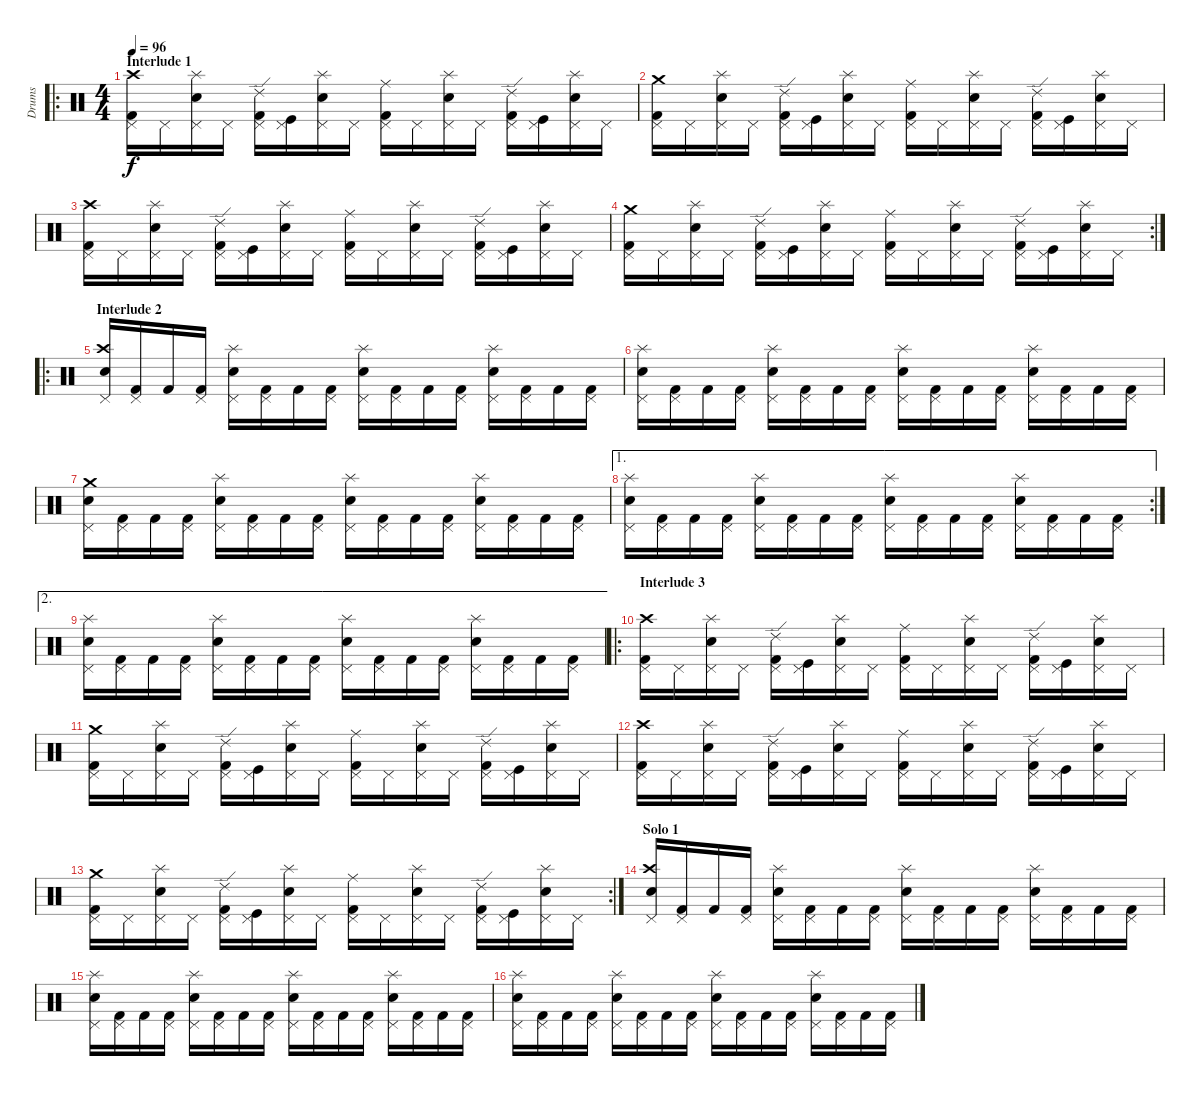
\track ("Drums" "Drums") {instrument percussion}
\staff {score}
\articulation defaults
\ro
\ts (4 4)
\section ("" "Interlude 1")
\tempo 96
\clef neutral
\ks c
("Kick (hit) 2" "Pedal Hi-Hat (hit)" "Crash high (hit)").16{dy f} "Pedal Hi-Hat (hit)".16 ("Snare (hit) 2" "Pedal Hi-Hat (hit)" "Splash (hit)").16 "Pedal Hi-Hat (hit)".16 ("Kick (hit) 2" "Pedal Hi-Hat (hit)" "Ride (edge) 2").16 ("Kick (hit)" "Pedal Hi-Hat (hit)").16 ("Snare (hit) 2" "Pedal Hi-Hat (hit)" "Splash (hit)").16 "Pedal Hi-Hat (hit)".16 ("Kick (hit) 2" "Pedal Hi-Hat (hit)" "Ride (middle)").16 "Pedal Hi-Hat (hit)".16 ("Snare (hit) 2" "Pedal Hi-Hat (hit)" "Splash (hit)").16 "Pedal Hi-Hat (hit)".16 ("Kick (hit) 2" "Pedal Hi-Hat (hit)" "Ride (edge) 2").16 ("Kick (hit)" "Pedal Hi-Hat (hit)").16 ("Snare (hit) 2" "Pedal Hi-Hat (hit)" "Splash (hit)").16 "Pedal Hi-Hat (hit)".16 |
("Kick (hit) 2" "Pedal Hi-Hat (hit)" "Crash medium (hit)").16 "Pedal Hi-Hat (hit)".16 ("Snare (hit) 2" "Pedal Hi-Hat (hit)" "Splash (hit)").16 "Pedal Hi-Hat (hit)".16 ("Kick (hit) 2" "Pedal Hi-Hat (hit)" "Ride (edge) 2").16 ("Kick (hit)" "Pedal Hi-Hat (hit)").16 ("Snare (hit) 2" "Pedal Hi-Hat (hit)" "Splash (hit)").16 "Pedal Hi-Hat (hit)".16 ("Kick (hit) 2" "Pedal Hi-Hat (hit)" "Ride (middle)").16 "Pedal Hi-Hat (hit)".16 ("Snare (hit) 2" "Pedal Hi-Hat (hit)" "Splash (hit)").16 "Pedal Hi-Hat (hit)".16 ("Kick (hit) 2" "Pedal Hi-Hat (hit)" "Ride (edge) 2").16 ("Kick (hit)" "Pedal Hi-Hat (hit)").16 ("Snare (hit) 2" "Pedal Hi-Hat (hit)" "Splash (hit)").16 "Pedal Hi-Hat (hit)".16 |
("Kick (hit) 2" "Pedal Hi-Hat (hit)" "Crash high (hit)").16 "Pedal Hi-Hat (hit)".16 ("Snare (hit) 2" "Pedal Hi-Hat (hit)" "Splash (hit)").16 "Pedal Hi-Hat (hit)".16 ("Kick (hit) 2" "Pedal Hi-Hat (hit)" "Ride (edge) 2").16 ("Kick (hit)" "Pedal Hi-Hat (hit)").16 ("Snare (hit) 2" "Pedal Hi-Hat (hit)" "Splash (hit)").16 "Pedal Hi-Hat (hit)".16 ("Kick (hit) 2" "Pedal Hi-Hat (hit)" "Ride (middle)").16 "Pedal Hi-Hat (hit)".16 ("Snare (hit) 2" "Pedal Hi-Hat (hit)" "Splash (hit)").16 "Pedal Hi-Hat (hit)".16 ("Kick (hit) 2" "Pedal Hi-Hat (hit)" "Ride (edge) 2").16 ("Kick (hit)" "Pedal Hi-Hat (hit)").16 ("Snare (hit) 2" "Pedal Hi-Hat (hit)" "Splash (hit)").16 "Pedal Hi-Hat (hit)".16 |
\rc 2
("Kick (hit) 2" "Pedal Hi-Hat (hit)" "Crash medium (hit)").16 "Pedal Hi-Hat (hit)".16 ("Snare (hit) 2" "Pedal Hi-Hat (hit)" "Splash (hit)").16 "Pedal Hi-Hat (hit)".16 ("Kick (hit) 2" "Pedal Hi-Hat (hit)" "Ride (edge) 2").16 ("Kick (hit)" "Pedal Hi-Hat (hit)").16 ("Snare (hit) 2" "Pedal Hi-Hat (hit)" "Splash (hit)").16 "Pedal Hi-Hat (hit)".16 ("Kick (hit) 2" "Pedal Hi-Hat (hit)" "Ride (middle)").16 "Pedal Hi-Hat (hit)".16 ("Snare (hit) 2" "Pedal Hi-Hat (hit)" "Splash (hit)").16 "Pedal Hi-Hat (hit)".16 ("Kick (hit) 2" "Pedal Hi-Hat (hit)" "Ride (edge) 2").16 ("Kick (hit)" "Pedal Hi-Hat (hit)").16 ("Snare (hit) 2" "Pedal Hi-Hat (hit)" "Splash (hit)").16 "Pedal Hi-Hat (hit)".16 |
\ro
\section ("" "Interlude 2")
("Snare (hit) 2" "Pedal Hi-Hat (hit)" "Crash high (hit)").16 ("Kick (hit) 2" "Pedal Hi-Hat (hit)").16 "Kick (hit) 2".16 ("Kick (hit) 2" "Pedal Hi-Hat (hit)").16 ("Snare (hit) 2" "Pedal Hi-Hat (hit)" "Splash (hit)").16 ("Kick (hit) 2" "Pedal Hi-Hat (hit)").16 "Kick (hit) 2".16 ("Kick (hit) 2" "Pedal Hi-Hat (hit)").16 ("Snare (hit) 2" "Pedal Hi-Hat (hit)" "Splash (hit)").16 ("Kick (hit) 2" "Pedal Hi-Hat (hit)").16 "Kick (hit) 2".16 ("Kick (hit) 2" "Pedal Hi-Hat (hit)").16 ("Snare (hit) 2" "Pedal Hi-Hat (hit)" "Splash (hit)").16 ("Kick (hit) 2" "Pedal Hi-Hat (hit)").16 "Kick (hit) 2".16 ("Kick (hit) 2" "Pedal Hi-Hat (hit)").16 |
("Snare (hit) 2" "Pedal Hi-Hat (hit)" "Splash (hit)").16 ("Kick (hit) 2" "Pedal Hi-Hat (hit)").16 "Kick (hit) 2".16 ("Kick (hit) 2" "Pedal Hi-Hat (hit)").16 ("Snare (hit) 2" "Pedal Hi-Hat (hit)" "Splash (hit)").16 ("Kick (hit) 2" "Pedal Hi-Hat (hit)").16 "Kick (hit) 2".16 ("Kick (hit) 2" "Pedal Hi-Hat (hit)").16 ("Snare (hit) 2" "Pedal Hi-Hat (hit)" "Splash (hit)").16 ("Kick (hit) 2" "Pedal Hi-Hat (hit)").16 "Kick (hit) 2".16 ("Kick (hit) 2" "Pedal Hi-Hat (hit)").16 ("Snare (hit) 2" "Pedal Hi-Hat (hit)" "Splash (hit)").16 ("Kick (hit) 2" "Pedal Hi-Hat (hit)").16 "Kick (hit) 2".16 ("Kick (hit) 2" "Pedal Hi-Hat (hit)").16 |
("Snare (hit) 2" "Pedal Hi-Hat (hit)" "Crash medium (hit)").16 ("Kick (hit) 2" "Pedal Hi-Hat (hit)").16 "Kick (hit) 2".16 ("Kick (hit) 2" "Pedal Hi-Hat (hit)").16 ("Snare (hit) 2" "Pedal Hi-Hat (hit)" "Splash (hit)").16 ("Kick (hit) 2" "Pedal Hi-Hat (hit)").16 "Kick (hit) 2".16 ("Kick (hit) 2" "Pedal Hi-Hat (hit)").16 ("Snare (hit) 2" "Pedal Hi-Hat (hit)" "Splash (hit)").16 ("Kick (hit) 2" "Pedal Hi-Hat (hit)").16 "Kick (hit) 2".16 ("Kick (hit) 2" "Pedal Hi-Hat (hit)").16 ("Snare (hit) 2" "Pedal Hi-Hat (hit)" "Splash (hit)").16 ("Kick (hit) 2" "Pedal Hi-Hat (hit)").16 "Kick (hit) 2".16 ("Kick (hit) 2" "Pedal Hi-Hat (hit)").16 |
\ae 1
\rc 2
("Snare (hit) 2" "Pedal Hi-Hat (hit)" "Splash (hit)").16 ("Kick (hit) 2" "Pedal Hi-Hat (hit)").16 "Kick (hit) 2".16 ("Kick (hit) 2" "Pedal Hi-Hat (hit)").16 ("Snare (hit) 2" "Pedal Hi-Hat (hit)" "Splash (hit)").16 ("Kick (hit) 2" "Pedal Hi-Hat (hit)").16 "Kick (hit) 2".16 ("Kick (hit) 2" "Pedal Hi-Hat (hit)").16 ("Snare (hit) 2" "Pedal Hi-Hat (hit)" "Splash (hit)").16 ("Kick (hit) 2" "Pedal Hi-Hat (hit)").16 "Kick (hit) 2".16 ("Kick (hit) 2" "Pedal Hi-Hat (hit)").16 ("Snare (hit) 2" "Pedal Hi-Hat (hit)" "Splash (hit)").16 ("Kick (hit) 2" "Pedal Hi-Hat (hit)").16 "Kick (hit) 2".16 ("Kick (hit) 2" "Pedal Hi-Hat (hit)").16 |
\ae 2
("Snare (hit) 2" "Pedal Hi-Hat (hit)" "Splash (hit)").16 ("Kick (hit) 2" "Pedal Hi-Hat (hit)").16 "Kick (hit) 2".16 ("Kick (hit) 2" "Pedal Hi-Hat (hit)").16 ("Snare (hit) 2" "Pedal Hi-Hat (hit)" "Splash (hit)").16 ("Kick (hit) 2" "Pedal Hi-Hat (hit)").16 "Kick (hit) 2".16 ("Kick (hit) 2" "Pedal Hi-Hat (hit)").16 ("Snare (hit) 2" "Pedal Hi-Hat (hit)" "Splash (hit)").16 ("Kick (hit) 2" "Pedal Hi-Hat (hit)").16 "Kick (hit) 2".16 ("Kick (hit) 2" "Pedal Hi-Hat (hit)").16 ("Snare (hit) 2" "Pedal Hi-Hat (hit)" "Splash (hit)").16 ("Kick (hit) 2" "Pedal Hi-Hat (hit)").16 "Kick (hit) 2".16 ("Kick (hit) 2" "Pedal Hi-Hat (hit)").16 |
\ro
\section ("" "Interlude 3")
("Kick (hit) 2" "Pedal Hi-Hat (hit)" "Crash high (hit)").16 "Pedal Hi-Hat (hit)".16 ("Snare (hit) 2" "Pedal Hi-Hat (hit)" "Splash (hit)").16 "Pedal Hi-Hat (hit)".16 ("Kick (hit) 2" "Pedal Hi-Hat (hit)" "Ride (edge) 2").16 ("Kick (hit)" "Pedal Hi-Hat (hit)").16 ("Snare (hit) 2" "Pedal Hi-Hat (hit)" "Splash (hit)").16 "Pedal Hi-Hat (hit)".16 ("Kick (hit) 2" "Pedal Hi-Hat (hit)" "Ride (middle)").16 "Pedal Hi-Hat (hit)".16 ("Snare (hit) 2" "Pedal Hi-Hat (hit)" "Splash (hit)").16 "Pedal Hi-Hat (hit)".16 ("Kick (hit) 2" "Pedal Hi-Hat (hit)" "Ride (edge) 2").16 ("Kick (hit)" "Pedal Hi-Hat (hit)").16 ("Snare (hit) 2" "Pedal Hi-Hat (hit)" "Splash (hit)").16 "Pedal Hi-Hat (hit)".16 |
("Kick (hit) 2" "Pedal Hi-Hat (hit)" "Crash medium (hit)").16 "Pedal Hi-Hat (hit)".16 ("Snare (hit) 2" "Pedal Hi-Hat (hit)" "Splash (hit)").16 "Pedal Hi-Hat (hit)".16 ("Kick (hit) 2" "Pedal Hi-Hat (hit)" "Ride (edge) 2").16 ("Kick (hit)" "Pedal Hi-Hat (hit)").16 ("Snare (hit) 2" "Pedal Hi-Hat (hit)" "Splash (hit)").16 "Pedal Hi-Hat (hit)".16 ("Kick (hit) 2" "Pedal Hi-Hat (hit)" "Ride (middle)").16 "Pedal Hi-Hat (hit)".16 ("Snare (hit) 2" "Pedal Hi-Hat (hit)" "Splash (hit)").16 "Pedal Hi-Hat (hit)".16 ("Kick (hit) 2" "Pedal Hi-Hat (hit)" "Ride (edge) 2").16 ("Kick (hit)" "Pedal Hi-Hat (hit)").16 ("Snare (hit) 2" "Pedal Hi-Hat (hit)" "Splash (hit)").16 "Pedal Hi-Hat (hit)".16 |
("Kick (hit) 2" "Pedal Hi-Hat (hit)" "Crash high (hit)").16 "Pedal Hi-Hat (hit)".16 ("Snare (hit) 2" "Pedal Hi-Hat (hit)" "Splash (hit)").16 "Pedal Hi-Hat (hit)".16 ("Kick (hit) 2" "Pedal Hi-Hat (hit)" "Ride (edge) 2").16 ("Kick (hit)" "Pedal Hi-Hat (hit)").16 ("Snare (hit) 2" "Pedal Hi-Hat (hit)" "Splash (hit)").16 "Pedal Hi-Hat (hit)".16 ("Kick (hit) 2" "Pedal Hi-Hat (hit)" "Ride (middle)").16 "Pedal Hi-Hat (hit)".16 ("Snare (hit) 2" "Pedal Hi-Hat (hit)" "Splash (hit)").16 "Pedal Hi-Hat (hit)".16 ("Kick (hit) 2" "Pedal Hi-Hat (hit)" "Ride (edge) 2").16 ("Kick (hit)" "Pedal Hi-Hat (hit)").16 ("Snare (hit) 2" "Pedal Hi-Hat (hit)" "Splash (hit)").16 "Pedal Hi-Hat (hit)".16 |
\rc 2
("Kick (hit) 2" "Pedal Hi-Hat (hit)" "Crash medium (hit)").16 "Pedal Hi-Hat (hit)".16 ("Snare (hit) 2" "Pedal Hi-Hat (hit)" "Splash (hit)").16 "Pedal Hi-Hat (hit)".16 ("Kick (hit) 2" "Pedal Hi-Hat (hit)" "Ride (edge) 2").16 ("Kick (hit)" "Pedal Hi-Hat (hit)").16 ("Snare (hit) 2" "Pedal Hi-Hat (hit)" "Splash (hit)").16 "Pedal Hi-Hat (hit)".16 ("Kick (hit) 2" "Pedal Hi-Hat (hit)" "Ride (middle)").16 "Pedal Hi-Hat (hit)".16 ("Snare (hit) 2" "Pedal Hi-Hat (hit)" "Splash (hit)").16 "Pedal Hi-Hat (hit)".16 ("Kick (hit) 2" "Pedal Hi-Hat (hit)" "Ride (edge) 2").16 ("Kick (hit)" "Pedal Hi-Hat (hit)").16 ("Snare (hit) 2" "Pedal Hi-Hat (hit)" "Splash (hit)").16 "Pedal Hi-Hat (hit)".16 |
\section ("" "Solo 1")
("Snare (hit) 2" "Pedal Hi-Hat (hit)" "Crash high (hit)").16 ("Kick (hit) 2" "Pedal Hi-Hat (hit)").16 "Kick (hit) 2".16 ("Kick (hit) 2" "Pedal Hi-Hat (hit)").16 ("Snare (hit) 2" "Pedal Hi-Hat (hit)" "Splash (hit)").16 ("Kick (hit) 2" "Pedal Hi-Hat (hit)").16 "Kick (hit) 2".16 ("Kick (hit) 2" "Pedal Hi-Hat (hit)").16 ("Snare (hit) 2" "Pedal Hi-Hat (hit)" "Splash (hit)").16 ("Kick (hit) 2" "Pedal Hi-Hat (hit)").16 "Kick (hit) 2".16 ("Kick (hit) 2" "Pedal Hi-Hat (hit)").16 ("Snare (hit) 2" "Pedal Hi-Hat (hit)" "Splash (hit)").16 ("Kick (hit) 2" "Pedal Hi-Hat (hit)").16 "Kick (hit) 2".16 ("Kick (hit) 2" "Pedal Hi-Hat (hit)").16 |
("Snare (hit) 2" "Pedal Hi-Hat (hit)" "Splash (hit)").16 ("Kick (hit) 2" "Pedal Hi-Hat (hit)").16 "Kick (hit) 2".16 ("Kick (hit) 2" "Pedal Hi-Hat (hit)").16 ("Snare (hit) 2" "Pedal Hi-Hat (hit)" "Splash (hit)").16 ("Kick (hit) 2" "Pedal Hi-Hat (hit)").16 "Kick (hit) 2".16 ("Kick (hit) 2" "Pedal Hi-Hat (hit)").16 ("Snare (hit) 2" "Pedal Hi-Hat (hit)" "Splash (hit)").16 ("Kick (hit) 2" "Pedal Hi-Hat (hit)").16 "Kick (hit) 2".16 ("Kick (hit) 2" "Pedal Hi-Hat (hit)").16 ("Snare (hit) 2" "Pedal Hi-Hat (hit)" "Splash (hit)").16 ("Kick (hit) 2" "Pedal Hi-Hat (hit)").16 "Kick (hit) 2".16 ("Kick (hit) 2" "Pedal Hi-Hat (hit)").16 |
("Snare (hit) 2" "Pedal Hi-Hat (hit)" "Splash (hit)").16 ("Kick (hit) 2" "Pedal Hi-Hat (hit)").16 "Kick (hit) 2".16 ("Kick (hit) 2" "Pedal Hi-Hat (hit)").16 ("Snare (hit) 2" "Pedal Hi-Hat (hit)" "Splash (hit)").16 ("Kick (hit) 2" "Pedal Hi-Hat (hit)").16 "Kick (hit) 2".16 ("Kick (hit) 2" "Pedal Hi-Hat (hit)").16 ("Snare (hit) 2" "Pedal Hi-Hat (hit)" "Splash (hit)").16 ("Kick (hit) 2" "Pedal Hi-Hat (hit)").16 "Kick (hit) 2".16 ("Kick (hit) 2" "Pedal Hi-Hat (hit)").16 ("Snare (hit) 2" "Pedal Hi-Hat (hit)" "Splash (hit)").16 ("Kick (hit) 2" "Pedal Hi-Hat (hit)").16 "Kick (hit) 2".16 ("Kick (hit) 2" "Pedal Hi-Hat (hit)").16
